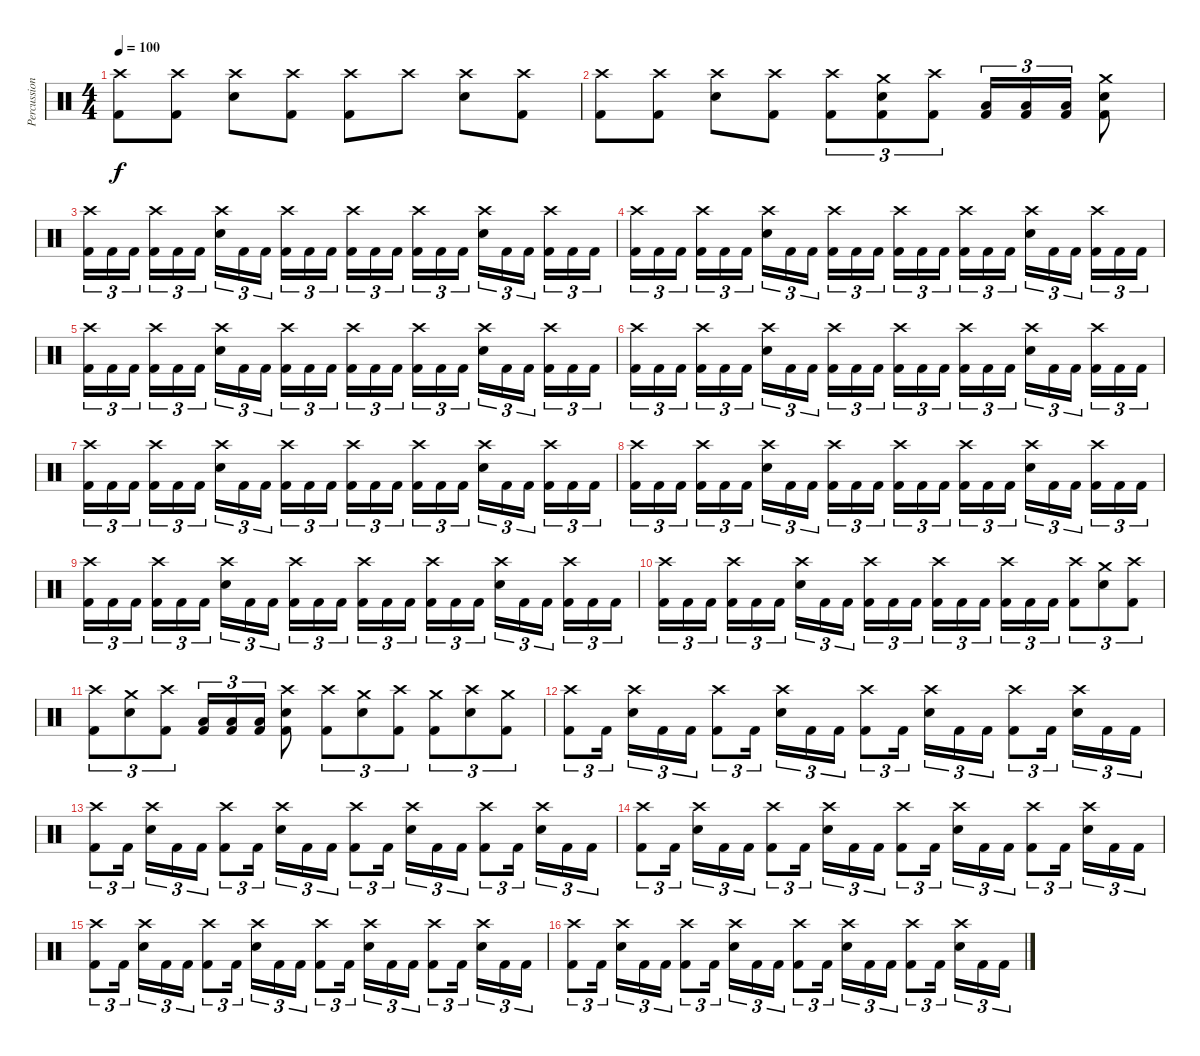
\track ("Percussion" "Percussion") {instrument percussion}
\staff {score}
\articulation defaults
\ts (4 4)
\tempo 100
\clef neutral
\ks c
("Crash high (hit)" "Kick (hit) 2").8{dy f} ("Crash high (hit)" "Kick (hit) 2").8 ("Crash high (hit)" "Electric Snare (hit)").8 ("Crash high (hit)" "Kick (hit) 2").8 ("Crash high (hit)" "Kick (hit) 2").8 "Crash high (hit)".8 ("Crash high (hit)" "Electric Snare (hit)").8 ("Crash high (hit)" "Kick (hit) 2").8 |
("Crash high (hit)" "Kick (hit) 2").8 ("Crash high (hit)" "Kick (hit) 2").8 ("Crash high (hit)" "Electric Snare (hit)").8 ("Crash high (hit)" "Kick (hit) 2").8 ("Crash high (hit)" "Kick (hit) 2").8{tu (3 2)} ("Crash medium (hit)" "Electric Snare (hit)" "Kick (hit) 2").8{tu (3 2)} ("Crash high (hit)" "Kick (hit) 2").8{tu (3 2)} ("Low Tom (hit)" "Kick (hit) 2").16{tu (3 2)} ("Low Tom (hit)" "Kick (hit) 2").16{tu (3 2)} ("Low Tom (hit)" "Kick (hit) 2").16{tu (3 2)} ("Crash medium (hit)" "Electric Snare (hit)" "Kick (hit) 2").8 |
("Crash high (hit)" "Kick (hit) 2").16{tu (3 2)} "Kick (hit) 2".16{tu (3 2)} "Kick (hit) 2".16{tu (3 2)} ("Crash high (hit)" "Kick (hit) 2").16{tu (3 2)} "Kick (hit) 2".16{tu (3 2)} "Kick (hit) 2".16{tu (3 2)} ("Crash high (hit)" "Electric Snare (hit)").16{tu (3 2)} "Kick (hit) 2".16{tu (3 2)} "Kick (hit) 2".16{tu (3 2)} ("Crash high (hit)" "Kick (hit) 2").16{tu (3 2)} "Kick (hit) 2".16{tu (3 2)} "Kick (hit) 2".16{tu (3 2)} ("Crash high (hit)" "Kick (hit) 2").16{tu (3 2)} "Kick (hit) 2".16{tu (3 2)} "Kick (hit) 2".16{tu (3 2)} ("Crash high (hit)" "Kick (hit) 2").16{tu (3 2)} "Kick (hit) 2".16{tu (3 2)} "Kick (hit) 2".16{tu (3 2)} ("Crash high (hit)" "Electric Snare (hit)").16{tu (3 2)} "Kick (hit) 2".16{tu (3 2)} "Kick (hit) 2".16{tu (3 2)} ("Crash high (hit)" "Kick (hit) 2").16{tu (3 2)} "Kick (hit) 2".16{tu (3 2)} "Kick (hit) 2".16{tu (3 2)} |
("Crash high (hit)" "Kick (hit) 2").16{tu (3 2)} "Kick (hit) 2".16{tu (3 2)} "Kick (hit) 2".16{tu (3 2)} ("Crash high (hit)" "Kick (hit) 2").16{tu (3 2)} "Kick (hit) 2".16{tu (3 2)} "Kick (hit) 2".16{tu (3 2)} ("Crash high (hit)" "Electric Snare (hit)").16{tu (3 2)} "Kick (hit) 2".16{tu (3 2)} "Kick (hit) 2".16{tu (3 2)} ("Crash high (hit)" "Kick (hit) 2").16{tu (3 2)} "Kick (hit) 2".16{tu (3 2)} "Kick (hit) 2".16{tu (3 2)} ("Crash high (hit)" "Kick (hit) 2").16{tu (3 2)} "Kick (hit) 2".16{tu (3 2)} "Kick (hit) 2".16{tu (3 2)} ("Crash high (hit)" "Kick (hit) 2").16{tu (3 2)} "Kick (hit) 2".16{tu (3 2)} "Kick (hit) 2".16{tu (3 2)} ("Crash high (hit)" "Electric Snare (hit)").16{tu (3 2)} "Kick (hit) 2".16{tu (3 2)} "Kick (hit) 2".16{tu (3 2)} ("Crash high (hit)" "Kick (hit) 2").16{tu (3 2)} "Kick (hit) 2".16{tu (3 2)} "Kick (hit) 2".16{tu (3 2)} |
("Crash high (hit)" "Kick (hit) 2").16{tu (3 2)} "Kick (hit) 2".16{tu (3 2)} "Kick (hit) 2".16{tu (3 2)} ("Crash high (hit)" "Kick (hit) 2").16{tu (3 2)} "Kick (hit) 2".16{tu (3 2)} "Kick (hit) 2".16{tu (3 2)} ("Crash high (hit)" "Electric Snare (hit)").16{tu (3 2)} "Kick (hit) 2".16{tu (3 2)} "Kick (hit) 2".16{tu (3 2)} ("Crash high (hit)" "Kick (hit) 2").16{tu (3 2)} "Kick (hit) 2".16{tu (3 2)} "Kick (hit) 2".16{tu (3 2)} ("Crash high (hit)" "Kick (hit) 2").16{tu (3 2)} "Kick (hit) 2".16{tu (3 2)} "Kick (hit) 2".16{tu (3 2)} ("Crash high (hit)" "Kick (hit) 2").16{tu (3 2)} "Kick (hit) 2".16{tu (3 2)} "Kick (hit) 2".16{tu (3 2)} ("Crash high (hit)" "Electric Snare (hit)").16{tu (3 2)} "Kick (hit) 2".16{tu (3 2)} "Kick (hit) 2".16{tu (3 2)} ("Crash high (hit)" "Kick (hit) 2").16{tu (3 2)} "Kick (hit) 2".16{tu (3 2)} "Kick (hit) 2".16{tu (3 2)} |
("Crash high (hit)" "Kick (hit) 2").16{tu (3 2)} "Kick (hit) 2".16{tu (3 2)} "Kick (hit) 2".16{tu (3 2)} ("Crash high (hit)" "Kick (hit) 2").16{tu (3 2)} "Kick (hit) 2".16{tu (3 2)} "Kick (hit) 2".16{tu (3 2)} ("Crash high (hit)" "Electric Snare (hit)").16{tu (3 2)} "Kick (hit) 2".16{tu (3 2)} "Kick (hit) 2".16{tu (3 2)} ("Crash high (hit)" "Kick (hit) 2").16{tu (3 2)} "Kick (hit) 2".16{tu (3 2)} "Kick (hit) 2".16{tu (3 2)} ("Crash high (hit)" "Kick (hit) 2").16{tu (3 2)} "Kick (hit) 2".16{tu (3 2)} "Kick (hit) 2".16{tu (3 2)} ("Crash high (hit)" "Kick (hit) 2").16{tu (3 2)} "Kick (hit) 2".16{tu (3 2)} "Kick (hit) 2".16{tu (3 2)} ("Crash high (hit)" "Electric Snare (hit)").16{tu (3 2)} "Kick (hit) 2".16{tu (3 2)} "Kick (hit) 2".16{tu (3 2)} ("Crash high (hit)" "Kick (hit) 2").16{tu (3 2)} "Kick (hit) 2".16{tu (3 2)} "Kick (hit) 2".16{tu (3 2)} |
("Crash high (hit)" "Kick (hit) 2").16{tu (3 2)} "Kick (hit) 2".16{tu (3 2)} "Kick (hit) 2".16{tu (3 2)} ("Crash high (hit)" "Kick (hit) 2").16{tu (3 2)} "Kick (hit) 2".16{tu (3 2)} "Kick (hit) 2".16{tu (3 2)} ("Crash high (hit)" "Electric Snare (hit)").16{tu (3 2)} "Kick (hit) 2".16{tu (3 2)} "Kick (hit) 2".16{tu (3 2)} ("Crash high (hit)" "Kick (hit) 2").16{tu (3 2)} "Kick (hit) 2".16{tu (3 2)} "Kick (hit) 2".16{tu (3 2)} ("Crash high (hit)" "Kick (hit) 2").16{tu (3 2)} "Kick (hit) 2".16{tu (3 2)} "Kick (hit) 2".16{tu (3 2)} ("Crash high (hit)" "Kick (hit) 2").16{tu (3 2)} "Kick (hit) 2".16{tu (3 2)} "Kick (hit) 2".16{tu (3 2)} ("Crash high (hit)" "Electric Snare (hit)").16{tu (3 2)} "Kick (hit) 2".16{tu (3 2)} "Kick (hit) 2".16{tu (3 2)} ("Crash high (hit)" "Kick (hit) 2").16{tu (3 2)} "Kick (hit) 2".16{tu (3 2)} "Kick (hit) 2".16{tu (3 2)} |
("Crash high (hit)" "Kick (hit) 2").16{tu (3 2)} "Kick (hit) 2".16{tu (3 2)} "Kick (hit) 2".16{tu (3 2)} ("Crash high (hit)" "Kick (hit) 2").16{tu (3 2)} "Kick (hit) 2".16{tu (3 2)} "Kick (hit) 2".16{tu (3 2)} ("Crash high (hit)" "Electric Snare (hit)").16{tu (3 2)} "Kick (hit) 2".16{tu (3 2)} "Kick (hit) 2".16{tu (3 2)} ("Crash high (hit)" "Kick (hit) 2").16{tu (3 2)} "Kick (hit) 2".16{tu (3 2)} "Kick (hit) 2".16{tu (3 2)} ("Crash high (hit)" "Kick (hit) 2").16{tu (3 2)} "Kick (hit) 2".16{tu (3 2)} "Kick (hit) 2".16{tu (3 2)} ("Crash high (hit)" "Kick (hit) 2").16{tu (3 2)} "Kick (hit) 2".16{tu (3 2)} "Kick (hit) 2".16{tu (3 2)} ("Crash high (hit)" "Electric Snare (hit)").16{tu (3 2)} "Kick (hit) 2".16{tu (3 2)} "Kick (hit) 2".16{tu (3 2)} ("Crash high (hit)" "Kick (hit) 2").16{tu (3 2)} "Kick (hit) 2".16{tu (3 2)} "Kick (hit) 2".16{tu (3 2)} |
("Crash high (hit)" "Kick (hit) 2").16{tu (3 2)} "Kick (hit) 2".16{tu (3 2)} "Kick (hit) 2".16{tu (3 2)} ("Crash high (hit)" "Kick (hit) 2").16{tu (3 2)} "Kick (hit) 2".16{tu (3 2)} "Kick (hit) 2".16{tu (3 2)} ("Crash high (hit)" "Electric Snare (hit)").16{tu (3 2)} "Kick (hit) 2".16{tu (3 2)} "Kick (hit) 2".16{tu (3 2)} ("Crash high (hit)" "Kick (hit) 2").16{tu (3 2)} "Kick (hit) 2".16{tu (3 2)} "Kick (hit) 2".16{tu (3 2)} ("Crash high (hit)" "Kick (hit) 2").16{tu (3 2)} "Kick (hit) 2".16{tu (3 2)} "Kick (hit) 2".16{tu (3 2)} ("Crash high (hit)" "Kick (hit) 2").16{tu (3 2)} "Kick (hit) 2".16{tu (3 2)} "Kick (hit) 2".16{tu (3 2)} ("Crash high (hit)" "Electric Snare (hit)").16{tu (3 2)} "Kick (hit) 2".16{tu (3 2)} "Kick (hit) 2".16{tu (3 2)} ("Crash high (hit)" "Kick (hit) 2").16{tu (3 2)} "Kick (hit) 2".16{tu (3 2)} "Kick (hit) 2".16{tu (3 2)} |
("Crash high (hit)" "Kick (hit) 2").16{tu (3 2)} "Kick (hit) 2".16{tu (3 2)} "Kick (hit) 2".16{tu (3 2)} ("Crash high (hit)" "Kick (hit) 2").16{tu (3 2)} "Kick (hit) 2".16{tu (3 2)} "Kick (hit) 2".16{tu (3 2)} ("Crash high (hit)" "Electric Snare (hit)").16{tu (3 2)} "Kick (hit) 2".16{tu (3 2)} "Kick (hit) 2".16{tu (3 2)} ("Crash high (hit)" "Kick (hit) 2").16{tu (3 2)} "Kick (hit) 2".16{tu (3 2)} "Kick (hit) 2".16{tu (3 2)} ("Crash high (hit)" "Kick (hit) 2").16{tu (3 2)} "Kick (hit) 2".16{tu (3 2)} "Kick (hit) 2".16{tu (3 2)} ("Crash high (hit)" "Kick (hit) 2").16{tu (3 2)} "Kick (hit) 2".16{tu (3 2)} "Kick (hit) 2".16{tu (3 2)} ("Crash high (hit)" "Kick (hit) 2").8{tu (3 2)} ("Crash medium (hit)" "Electric Snare (hit)").8{tu (3 2)} ("Crash high (hit)" "Kick (hit) 2").8{tu (3 2)} |
("Crash high (hit)" "Kick (hit) 2").8{tu (3 2)} ("Crash medium (hit)" "Electric Snare (hit)").8{tu (3 2)} ("Crash high (hit)" "Kick (hit) 2").8{tu (3 2)} ("Low Tom (hit)" "Kick (hit) 2").16{tu (3 2)} ("Low Tom (hit)" "Kick (hit) 2").16{tu (3 2)} ("Low Tom (hit)" "Kick (hit) 2").16{tu (3 2)} ("Crash high (hit)" "Electric Snare (hit)" "Kick (hit) 2").8 ("Crash high (hit)" "Kick (hit) 2").8{tu (3 2)} ("Crash medium (hit)" "Electric Snare (hit)").8{tu (3 2)} ("Crash high (hit)" "Kick (hit) 2").8{tu (3 2)} ("Crash medium (hit)" "Kick (hit) 2").8{tu (3 2)} ("Crash high (hit)" "Electric Snare (hit)").8{tu (3 2)} ("Crash medium (hit)" "Kick (hit) 2").8{tu (3 2)} |
("Crash high (hit)" "Kick (hit) 2").8{tu (3 2)} "Kick (hit) 2".16{tu (3 2)} ("Crash high (hit)" "Electric Snare (hit)").16{tu (3 2)} "Kick (hit) 2".16{tu (3 2)} "Kick (hit) 2".16{tu (3 2)} ("Crash high (hit)" "Kick (hit) 2").8{tu (3 2)} "Kick (hit) 2".16{tu (3 2)} ("Crash high (hit)" "Electric Snare (hit)").16{tu (3 2)} "Kick (hit) 2".16{tu (3 2)} "Kick (hit) 2".16{tu (3 2)} ("Crash high (hit)" "Kick (hit) 2").8{tu (3 2)} "Kick (hit) 2".16{tu (3 2)} ("Crash high (hit)" "Electric Snare (hit)").16{tu (3 2)} "Kick (hit) 2".16{tu (3 2)} "Kick (hit) 2".16{tu (3 2)} ("Crash high (hit)" "Kick (hit) 2").8{tu (3 2)} "Kick (hit) 2".16{tu (3 2)} ("Crash high (hit)" "Electric Snare (hit)").16{tu (3 2)} "Kick (hit) 2".16{tu (3 2)} "Kick (hit) 2".16{tu (3 2)} |
("Crash high (hit)" "Kick (hit) 2").8{tu (3 2)} "Kick (hit) 2".16{tu (3 2)} ("Crash high (hit)" "Electric Snare (hit)").16{tu (3 2)} "Kick (hit) 2".16{tu (3 2)} "Kick (hit) 2".16{tu (3 2)} ("Crash high (hit)" "Kick (hit) 2").8{tu (3 2)} "Kick (hit) 2".16{tu (3 2)} ("Crash high (hit)" "Electric Snare (hit)").16{tu (3 2)} "Kick (hit) 2".16{tu (3 2)} "Kick (hit) 2".16{tu (3 2)} ("Crash high (hit)" "Kick (hit) 2").8{tu (3 2)} "Kick (hit) 2".16{tu (3 2)} ("Crash high (hit)" "Electric Snare (hit)").16{tu (3 2)} "Kick (hit) 2".16{tu (3 2)} "Kick (hit) 2".16{tu (3 2)} ("Crash high (hit)" "Kick (hit) 2").8{tu (3 2)} "Kick (hit) 2".16{tu (3 2)} ("Crash high (hit)" "Electric Snare (hit)").16{tu (3 2)} "Kick (hit) 2".16{tu (3 2)} "Kick (hit) 2".16{tu (3 2)} |
("Crash high (hit)" "Kick (hit) 2").8{tu (3 2)} "Kick (hit) 2".16{tu (3 2)} ("Crash high (hit)" "Electric Snare (hit)").16{tu (3 2)} "Kick (hit) 2".16{tu (3 2)} "Kick (hit) 2".16{tu (3 2)} ("Crash high (hit)" "Kick (hit) 2").8{tu (3 2)} "Kick (hit) 2".16{tu (3 2)} ("Crash high (hit)" "Electric Snare (hit)").16{tu (3 2)} "Kick (hit) 2".16{tu (3 2)} "Kick (hit) 2".16{tu (3 2)} ("Crash high (hit)" "Kick (hit) 2").8{tu (3 2)} "Kick (hit) 2".16{tu (3 2)} ("Crash high (hit)" "Electric Snare (hit)").16{tu (3 2)} "Kick (hit) 2".16{tu (3 2)} "Kick (hit) 2".16{tu (3 2)} ("Crash high (hit)" "Kick (hit) 2").8{tu (3 2)} "Kick (hit) 2".16{tu (3 2)} ("Crash high (hit)" "Electric Snare (hit)").16{tu (3 2)} "Kick (hit) 2".16{tu (3 2)} "Kick (hit) 2".16{tu (3 2)} |
("Crash high (hit)" "Kick (hit) 2").8{tu (3 2)} "Kick (hit) 2".16{tu (3 2)} ("Crash high (hit)" "Electric Snare (hit)").16{tu (3 2)} "Kick (hit) 2".16{tu (3 2)} "Kick (hit) 2".16{tu (3 2)} ("Crash high (hit)" "Kick (hit) 2").8{tu (3 2)} "Kick (hit) 2".16{tu (3 2)} ("Crash high (hit)" "Electric Snare (hit)").16{tu (3 2)} "Kick (hit) 2".16{tu (3 2)} "Kick (hit) 2".16{tu (3 2)} ("Crash high (hit)" "Kick (hit) 2").8{tu (3 2)} "Kick (hit) 2".16{tu (3 2)} ("Crash high (hit)" "Electric Snare (hit)").16{tu (3 2)} "Kick (hit) 2".16{tu (3 2)} "Kick (hit) 2".16{tu (3 2)} ("Crash high (hit)" "Kick (hit) 2").8{tu (3 2)} "Kick (hit) 2".16{tu (3 2)} ("Crash high (hit)" "Electric Snare (hit)").16{tu (3 2)} "Kick (hit) 2".16{tu (3 2)} "Kick (hit) 2".16{tu (3 2)} |
("Crash high (hit)" "Kick (hit) 2").8{tu (3 2)} "Kick (hit) 2".16{tu (3 2)} ("Crash high (hit)" "Electric Snare (hit)").16{tu (3 2)} "Kick (hit) 2".16{tu (3 2)} "Kick (hit) 2".16{tu (3 2)} ("Crash high (hit)" "Kick (hit) 2").8{tu (3 2)} "Kick (hit) 2".16{tu (3 2)} ("Crash high (hit)" "Electric Snare (hit)").16{tu (3 2)} "Kick (hit) 2".16{tu (3 2)} "Kick (hit) 2".16{tu (3 2)} ("Crash high (hit)" "Kick (hit) 2").8{tu (3 2)} "Kick (hit) 2".16{tu (3 2)} ("Crash high (hit)" "Electric Snare (hit)").16{tu (3 2)} "Kick (hit) 2".16{tu (3 2)} "Kick (hit) 2".16{tu (3 2)} ("Crash high (hit)" "Kick (hit) 2").8{tu (3 2)} "Kick (hit) 2".16{tu (3 2)} ("Crash high (hit)" "Electric Snare (hit)").16{tu (3 2)} "Kick (hit) 2".16{tu (3 2)} "Kick (hit) 2".16{tu (3 2)}
